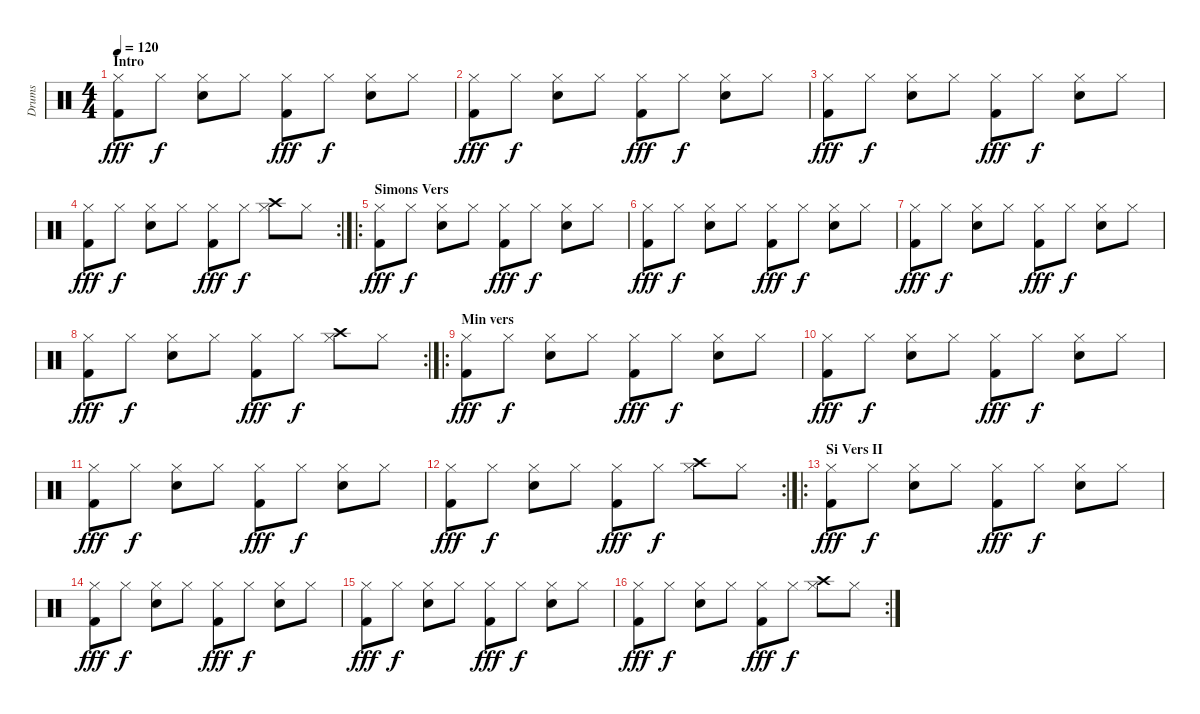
\track ("Drums" "Drums") {instrument percussion}
\staff {score}
\articulation defaults
\ts (4 4)
\section ("" "Intro")
\tempo 120
\clef neutral
\ks c
("Kick (hit) 2" "Hi-Hat (closed)").8{dy fff} "Hi-Hat (closed)".8{dy f} ("Electric Snare (hit)" "Hi-Hat (closed)").8 "Hi-Hat (closed)".8 ("Kick (hit) 2" "Hi-Hat (closed)").8{dy fff} "Hi-Hat (closed)".8{dy f} ("Electric Snare (hit)" "Hi-Hat (closed)").8 "Hi-Hat (closed)".8 |
("Kick (hit) 2" "Hi-Hat (closed)").8{dy fff} "Hi-Hat (closed)".8{dy f} ("Electric Snare (hit)" "Hi-Hat (closed)").8 "Hi-Hat (closed)".8 ("Kick (hit) 2" "Hi-Hat (closed)").8{dy fff} "Hi-Hat (closed)".8{dy f} ("Electric Snare (hit)" "Hi-Hat (closed)").8 "Hi-Hat (closed)".8 |
("Kick (hit) 2" "Hi-Hat (closed)").8{dy fff} "Hi-Hat (closed)".8{dy f} ("Electric Snare (hit)" "Hi-Hat (closed)").8 "Hi-Hat (closed)".8 ("Kick (hit) 2" "Hi-Hat (closed)").8{dy fff} "Hi-Hat (closed)".8{dy f} ("Electric Snare (hit)" "Hi-Hat (closed)").8 "Hi-Hat (closed)".8 |
\rc 2
("Kick (hit) 2" "Hi-Hat (closed)").8{dy fff} "Hi-Hat (closed)".8{dy f} ("Electric Snare (hit)" "Hi-Hat (closed)").8 "Hi-Hat (closed)".8 ("Kick (hit) 2" "Hi-Hat (closed)").8{dy fff} "Hi-Hat (closed)".8{dy f} ("Crash high (hit)" "Hi-Hat (closed)").8 "Hi-Hat (closed)".8 |
\ro
\section ("" "Simons Vers")
("Kick (hit) 2" "Hi-Hat (closed)").8{dy fff} "Hi-Hat (closed)".8{dy f} ("Electric Snare (hit)" "Hi-Hat (closed)").8 "Hi-Hat (closed)".8 ("Kick (hit) 2" "Hi-Hat (closed)").8{dy fff} "Hi-Hat (closed)".8{dy f} ("Electric Snare (hit)" "Hi-Hat (closed)").8 "Hi-Hat (closed)".8 |
("Kick (hit) 2" "Hi-Hat (closed)").8{dy fff} "Hi-Hat (closed)".8{dy f} ("Electric Snare (hit)" "Hi-Hat (closed)").8 "Hi-Hat (closed)".8 ("Kick (hit) 2" "Hi-Hat (closed)").8{dy fff} "Hi-Hat (closed)".8{dy f} ("Electric Snare (hit)" "Hi-Hat (closed)").8 "Hi-Hat (closed)".8 |
("Kick (hit) 2" "Hi-Hat (closed)").8{dy fff} "Hi-Hat (closed)".8{dy f} ("Electric Snare (hit)" "Hi-Hat (closed)").8 "Hi-Hat (closed)".8 ("Kick (hit) 2" "Hi-Hat (closed)").8{dy fff} "Hi-Hat (closed)".8{dy f} ("Electric Snare (hit)" "Hi-Hat (closed)").8 "Hi-Hat (closed)".8 |
\rc 2
("Kick (hit) 2" "Hi-Hat (closed)").8{dy fff} "Hi-Hat (closed)".8{dy f} ("Electric Snare (hit)" "Hi-Hat (closed)").8 "Hi-Hat (closed)".8 ("Kick (hit) 2" "Hi-Hat (closed)").8{dy fff} "Hi-Hat (closed)".8{dy f} ("Crash high (hit)" "Hi-Hat (closed)").8 "Hi-Hat (closed)".8 |
\ro
\section ("" "Min vers")
("Kick (hit) 2" "Hi-Hat (closed)").8{dy fff volume 10} "Hi-Hat (closed)".8{dy f} ("Electric Snare (hit)" "Hi-Hat (closed)").8 "Hi-Hat (closed)".8 ("Kick (hit) 2" "Hi-Hat (closed)").8{dy fff} "Hi-Hat (closed)".8{dy f} ("Electric Snare (hit)" "Hi-Hat (closed)").8 "Hi-Hat (closed)".8 |
("Kick (hit) 2" "Hi-Hat (closed)").8{dy fff} "Hi-Hat (closed)".8{dy f} ("Electric Snare (hit)" "Hi-Hat (closed)").8 "Hi-Hat (closed)".8 ("Kick (hit) 2" "Hi-Hat (closed)").8{dy fff} "Hi-Hat (closed)".8{dy f} ("Electric Snare (hit)" "Hi-Hat (closed)").8 "Hi-Hat (closed)".8 |
("Kick (hit) 2" "Hi-Hat (closed)").8{dy fff} "Hi-Hat (closed)".8{dy f} ("Electric Snare (hit)" "Hi-Hat (closed)").8 "Hi-Hat (closed)".8 ("Kick (hit) 2" "Hi-Hat (closed)").8{dy fff} "Hi-Hat (closed)".8{dy f} ("Electric Snare (hit)" "Hi-Hat (closed)").8 "Hi-Hat (closed)".8 |
\rc 2
("Kick (hit) 2" "Hi-Hat (closed)").8{dy fff} "Hi-Hat (closed)".8{dy f} ("Electric Snare (hit)" "Hi-Hat (closed)").8 "Hi-Hat (closed)".8 ("Kick (hit) 2" "Hi-Hat (closed)").8{dy fff} "Hi-Hat (closed)".8{dy f} ("Crash high (hit)" "Hi-Hat (closed)").8 "Hi-Hat (closed)".8 |
\ro
\section ("" "Si Vers II")
("Kick (hit) 2" "Hi-Hat (closed)").8{dy fff volume 16} "Hi-Hat (closed)".8{dy f} ("Electric Snare (hit)" "Hi-Hat (closed)").8 "Hi-Hat (closed)".8 ("Kick (hit) 2" "Hi-Hat (closed)").8{dy fff} "Hi-Hat (closed)".8{dy f} ("Electric Snare (hit)" "Hi-Hat (closed)").8 "Hi-Hat (closed)".8 |
("Kick (hit) 2" "Hi-Hat (closed)").8{dy fff} "Hi-Hat (closed)".8{dy f} ("Electric Snare (hit)" "Hi-Hat (closed)").8 "Hi-Hat (closed)".8 ("Kick (hit) 2" "Hi-Hat (closed)").8{dy fff} "Hi-Hat (closed)".8{dy f} ("Electric Snare (hit)" "Hi-Hat (closed)").8 "Hi-Hat (closed)".8 |
("Kick (hit) 2" "Hi-Hat (closed)").8{dy fff} "Hi-Hat (closed)".8{dy f} ("Electric Snare (hit)" "Hi-Hat (closed)").8 "Hi-Hat (closed)".8 ("Kick (hit) 2" "Hi-Hat (closed)").8{dy fff} "Hi-Hat (closed)".8{dy f} ("Electric Snare (hit)" "Hi-Hat (closed)").8 "Hi-Hat (closed)".8 |
\rc 2
("Kick (hit) 2" "Hi-Hat (closed)").8{dy fff} "Hi-Hat (closed)".8{dy f} ("Electric Snare (hit)" "Hi-Hat (closed)").8 "Hi-Hat (closed)".8 ("Kick (hit) 2" "Hi-Hat (closed)").8{dy fff} "Hi-Hat (closed)".8{dy f} ("Crash high (hit)" "Hi-Hat (closed)").8 "Hi-Hat (closed)".8
